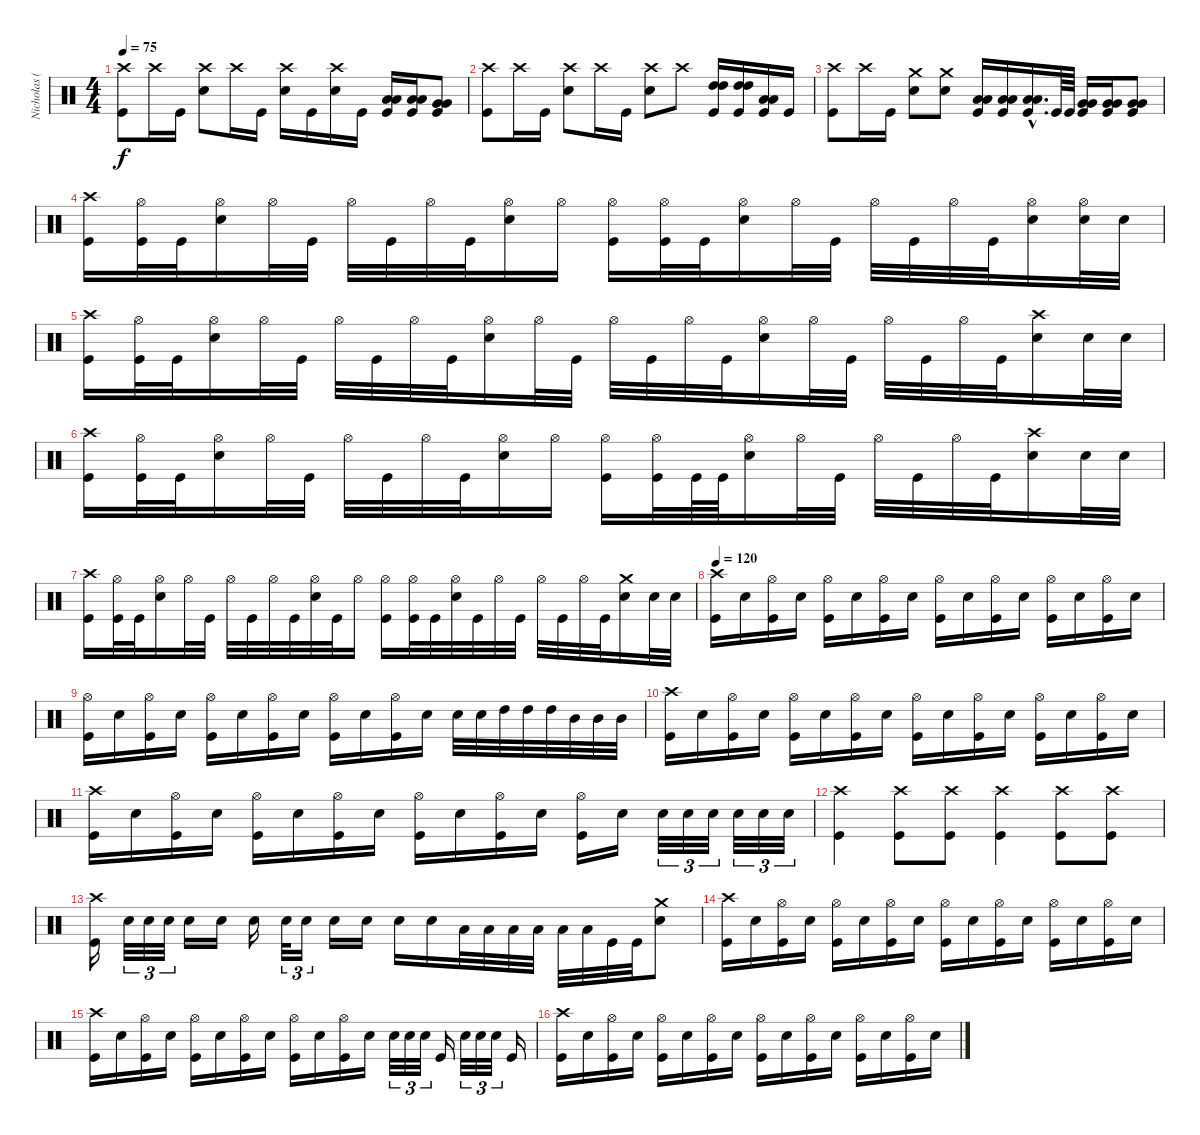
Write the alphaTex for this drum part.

\track ("Nicholas (Drums)" "Nicholas (") {instrument percussion}
\staff {score}
\articulation defaults
\ts (4 4)
\tempo 75
\clef neutral
\ks c
("Crash high (hit)" "Kick (hit)").8{dy f} "Crash high (hit)".16 "Kick (hit)".16 ("Crash high (hit)" "Electric Snare (hit)").8 "Crash high (hit)".16 "Kick (hit)".16 ("Crash high (hit)" "Electric Snare (hit)").16 "Kick (hit)".16 ("Crash high (hit)" "Electric Snare (hit)").16 "Kick (hit)".16 ("Low Tom (hit)" "Low Tom (hit)" "Kick (hit)").16 ("Low Tom (hit)" "Low Tom (hit)" "Kick (hit)").16 ("Very Low Tom (hit)" "Very Low Tom (hit)" "Kick (hit)").8 |
("Crash high (hit)" "Kick (hit)").8 "Crash high (hit)".16 "Kick (hit)".16 ("Crash high (hit)" "Electric Snare (hit)").8 "Crash high (hit)".16 "Kick (hit)".16 ("Crash high (hit)" "Electric Snare (hit)").8 "Crash high (hit)".8 ("High Tom (hit)" "High Tom (hit)" "Kick (hit)").16 ("High Tom (hit)" "High Tom (hit)" "Kick (hit)").16 ("Low Tom (hit)" "Low Tom (hit)" "Kick (hit)").16 "Kick (hit)".16 |
("Crash high (hit)" "Kick (hit)").8 "Crash high (hit)".16 "Kick (hit)".16 ("Crash medium (hit)" "Electric Snare (hit)").8 ("Crash medium (hit)" "Electric Snare (hit)").8 ("Low Tom (hit)" "Low Tom (hit)" "Kick (hit)").16 ("Low Tom (hit)" "Low Tom (hit)" "Kick (hit)").16 ("Low Tom (hit)"{hac} "Low Tom (hit)"{hac} "Kick (hit)"{hac}).16{d} "Kick (hit)".64 "Kick (hit)".64 ("Very Low Tom (hit)" "Very Low Tom (hit)" "Kick (hit)").16 ("Very Low Tom (hit)" "Very Low Tom (hit)" "Kick (hit)").16 ("Very Low Tom (hit)" "Very Low Tom (hit)" "Kick (hit)").8 |
("Crash high (hit)" "Kick (hit)").16 ("Hi-Hat (open)" "Kick (hit)").32 "Kick (hit)".32 ("Hi-Hat (open)" "Electric Snare (hit)").16 "Hi-Hat (open)".32 "Kick (hit)".32 "Hi-Hat (open)".32 "Kick (hit)".32 "Hi-Hat (open)".32 "Kick (hit)".32 ("Hi-Hat (open)" "Electric Snare (hit)").16 "Hi-Hat (open)".16 ("Hi-Hat (open)" "Kick (hit)").16 ("Hi-Hat (open)" "Kick (hit)").32 "Kick (hit)".32 ("Hi-Hat (open)" "Electric Snare (hit)").16 "Hi-Hat (open)".32 "Kick (hit)".32 "Hi-Hat (open)".32 "Kick (hit)".32 "Hi-Hat (open)".32 "Kick (hit)".32 ("Hi-Hat (open)" "Electric Snare (hit)").16 ("Hi-Hat (open)" "Electric Snare (hit)").32 "Electric Snare (hit)".32 |
("Crash high (hit)" "Kick (hit)").16 ("Hi-Hat (open)" "Kick (hit)").32 "Kick (hit)".32 ("Hi-Hat (open)" "Electric Snare (hit)").16 "Hi-Hat (open)".32 "Kick (hit)".32 "Hi-Hat (open)".32 "Kick (hit)".32 "Hi-Hat (open)".32 "Kick (hit)".32 ("Hi-Hat (open)" "Electric Snare (hit)").16 "Hi-Hat (open)".32 "Kick (hit)".32 "Hi-Hat (open)".32 "Kick (hit)".32 "Hi-Hat (open)".32 "Kick (hit)".32 ("Hi-Hat (open)" "Electric Snare (hit)").16 "Hi-Hat (open)".32 "Kick (hit)".32 "Hi-Hat (open)".32 "Kick (hit)".32 "Hi-Hat (open)".32 "Kick (hit)".32 ("Crash high (hit)" "Electric Snare (hit)").16 "Electric Snare (hit)".32 "Electric Snare (hit)".32 |
("Crash high (hit)" "Kick (hit)").16 ("Hi-Hat (open)" "Kick (hit)").32 "Kick (hit)".32 ("Hi-Hat (open)" "Electric Snare (hit)").16 "Hi-Hat (open)".32 "Kick (hit)".32 "Hi-Hat (open)".32 "Kick (hit)".32 "Hi-Hat (open)".32 "Kick (hit)".32 ("Hi-Hat (open)" "Electric Snare (hit)").16 "Hi-Hat (open)".16 ("Hi-Hat (open)" "Kick (hit)").16 ("Hi-Hat (open)" "Kick (hit)").32 "Kick (hit)".64 "Kick (hit)".64 ("Hi-Hat (open)" "Electric Snare (hit)").16 "Hi-Hat (open)".32 "Kick (hit)".32 "Hi-Hat (open)".32 "Kick (hit)".32 "Hi-Hat (open)".32 "Kick (hit)".32 ("Crash high (hit)" "Electric Snare (hit)").16 "Electric Snare (hit)".32 "Electric Snare (hit)".32 |
("Crash high (hit)" "Kick (hit)").16 ("Hi-Hat (open)" "Kick (hit)").32 "Kick (hit)".32 ("Hi-Hat (open)" "Electric Snare (hit)").16 "Hi-Hat (open)".32 "Kick (hit)".32 "Hi-Hat (open)".32 "Kick (hit)".32 "Hi-Hat (open)".32 "Kick (hit)".32 ("Hi-Hat (open)" "Electric Snare (hit)").32 "Kick (hit)".32 "Hi-Hat (open)".16 ("Hi-Hat (open)" "Kick (hit)").16 ("Hi-Hat (open)" "Kick (hit)").32 "Kick (hit)".32 ("Hi-Hat (open)" "Electric Snare (hit)").32 "Kick (hit)".32 "Hi-Hat (open)".32 "Kick (hit)".32 "Hi-Hat (open)".32 "Kick (hit)".32 "Hi-Hat (open)".32 "Kick (hit)".32 ("Crash medium (hit)" "Electric Snare (hit)").16 "Electric Snare (hit)".32 "Electric Snare (hit)".32 |
\tempo 120
("Crash high (hit)" "Kick (hit)").16 "Electric Snare (hit)".16 ("Hi-Hat (open)" "Kick (hit)").16 "Electric Snare (hit)".16 ("Hi-Hat (open)" "Kick (hit)").16 "Electric Snare (hit)".16 ("Hi-Hat (open)" "Kick (hit)").16 "Electric Snare (hit)".16 ("Hi-Hat (open)" "Kick (hit)").16 "Electric Snare (hit)".16 ("Hi-Hat (open)" "Kick (hit)").16 "Electric Snare (hit)".16 ("Hi-Hat (open)" "Kick (hit)").16 "Electric Snare (hit)".16 ("Hi-Hat (open)" "Kick (hit)").16 "Electric Snare (hit)".16 |
("Hi-Hat (open)" "Kick (hit)").16 "Electric Snare (hit)".16 ("Hi-Hat (open)" "Kick (hit)").16 "Electric Snare (hit)".16 ("Hi-Hat (open)" "Kick (hit)").16 "Electric Snare (hit)".16 ("Hi-Hat (open)" "Kick (hit)").16 "Electric Snare (hit)".16 ("Hi-Hat (open)" "Kick (hit)").16 "Electric Snare (hit)".16 ("Hi-Hat (open)" "Kick (hit)").16 "Electric Snare (hit)".16 "Electric Snare (hit)".32 "Electric Snare (hit)".32 "High Tom (hit)".32 "High Tom (hit)".32 "High Tom (hit)".32 "Mid Tom (hit)".32 "Mid Tom (hit)".32 "Mid Tom (hit)".32 |
("Crash high (hit)" "Kick (hit)").16 "Electric Snare (hit)".16 ("Hi-Hat (open)" "Kick (hit)").16 "Electric Snare (hit)".16 ("Hi-Hat (open)" "Kick (hit)").16 "Electric Snare (hit)".16 ("Hi-Hat (open)" "Kick (hit)").16 "Electric Snare (hit)".16 ("Hi-Hat (open)" "Kick (hit)").16 "Electric Snare (hit)".16 ("Hi-Hat (open)" "Kick (hit)").16 "Electric Snare (hit)".16 ("Hi-Hat (open)" "Kick (hit)").16 "Electric Snare (hit)".16 ("Hi-Hat (open)" "Kick (hit)").16 "Electric Snare (hit)".16 |
("Crash high (hit)" "Kick (hit)").16 "Electric Snare (hit)".16 ("Hi-Hat (open)" "Kick (hit)").16 "Electric Snare (hit)".16 ("Hi-Hat (open)" "Kick (hit)").16 "Electric Snare (hit)".16 ("Hi-Hat (open)" "Kick (hit)").16 "Electric Snare (hit)".16 ("Hi-Hat (open)" "Kick (hit)").16 "Electric Snare (hit)".16 ("Hi-Hat (open)" "Kick (hit)").16 "Electric Snare (hit)".16 ("Hi-Hat (open)" "Kick (hit)").16 "Electric Snare (hit)".16 "Electric Snare (hit)".32{tu (3 2)} "Electric Snare (hit)".32{tu (3 2)} "Electric Snare (hit)".32{tu (3 2)} "Electric Snare (hit)".32{tu (3 2)} "Electric Snare (hit)".32{tu (3 2)} "Electric Snare (hit)".32{tu (3 2)} |
("Crash high (hit)" "Kick (hit)").4 ("Crash high (hit)" "Kick (hit)").8 ("Crash high (hit)" "Kick (hit)").8 ("Crash high (hit)" "Kick (hit)").4 ("Crash high (hit)" "Kick (hit)").8 ("Crash high (hit)" "Kick (hit)").8 |
("Crash high (hit)" "Kick (hit)").16 "Electric Snare (hit)".32{tu (3 2)} "Electric Snare (hit)".32{tu (3 2)} "Electric Snare (hit)".32{tu (3 2)} "Electric Snare (hit)".16 "Electric Snare (hit)".16 "Electric Snare (hit)".16 "Electric Snare (hit)".32{tu (3 2)} "Electric Snare (hit)".16{tu (3 2)} "Electric Snare (hit)".16 "Electric Snare (hit)".16 "Electric Snare (hit)".16 "Electric Snare (hit)".16 "Low Tom (hit)".32 "Low Tom (hit)".32 "Low Tom (hit)".32 "Low Tom (hit)".32 "Low Tom (hit)".32 "Low Tom (hit)".32 "Kick (hit)".32 "Kick (hit)".32 ("Crash medium (hit)" "Electric Snare (hit)").8 |
("Crash high (hit)" "Kick (hit)").16 "Electric Snare (hit)".16 ("Hi-Hat (open)" "Kick (hit)").16 "Electric Snare (hit)".16 ("Hi-Hat (open)" "Kick (hit)").16 "Electric Snare (hit)".16 ("Hi-Hat (open)" "Kick (hit)").16 "Electric Snare (hit)".16 ("Hi-Hat (open)" "Kick (hit)").16 "Electric Snare (hit)".16 ("Hi-Hat (open)" "Kick (hit)").16 "Electric Snare (hit)".16 ("Hi-Hat (open)" "Kick (hit)").16 "Electric Snare (hit)".16 ("Hi-Hat (open)" "Kick (hit)").16 "Electric Snare (hit)".16 |
("Crash high (hit)" "Kick (hit)").16 "Electric Snare (hit)".16 ("Hi-Hat (open)" "Kick (hit)").16 "Electric Snare (hit)".16 ("Hi-Hat (open)" "Kick (hit)").16 "Electric Snare (hit)".16 ("Hi-Hat (open)" "Kick (hit)").16 "Electric Snare (hit)".16 ("Hi-Hat (open)" "Kick (hit)").16 "Electric Snare (hit)".16 ("Hi-Hat (open)" "Kick (hit)").16 "Electric Snare (hit)".16 "Electric Snare (hit)".32{tu (3 2)} "Electric Snare (hit)".32{tu (3 2)} "Electric Snare (hit)".32{tu (3 2)} "Kick (hit)".16 "Electric Snare (hit)".32{tu (3 2)} "Electric Snare (hit)".32{tu (3 2)} "Electric Snare (hit)".32{tu (3 2)} "Kick (hit)".16 |
("Crash high (hit)" "Kick (hit)").16 "Electric Snare (hit)".16 ("Hi-Hat (open)" "Kick (hit)").16 "Electric Snare (hit)".16 ("Hi-Hat (open)" "Kick (hit)").16 "Electric Snare (hit)".16 ("Hi-Hat (open)" "Kick (hit)").16 "Electric Snare (hit)".16 ("Hi-Hat (open)" "Kick (hit)").16 "Electric Snare (hit)".16 ("Hi-Hat (open)" "Kick (hit)").16 "Electric Snare (hit)".16 ("Hi-Hat (open)" "Kick (hit)").16 "Electric Snare (hit)".16 ("Hi-Hat (open)" "Kick (hit)").16 "Electric Snare (hit)".16
